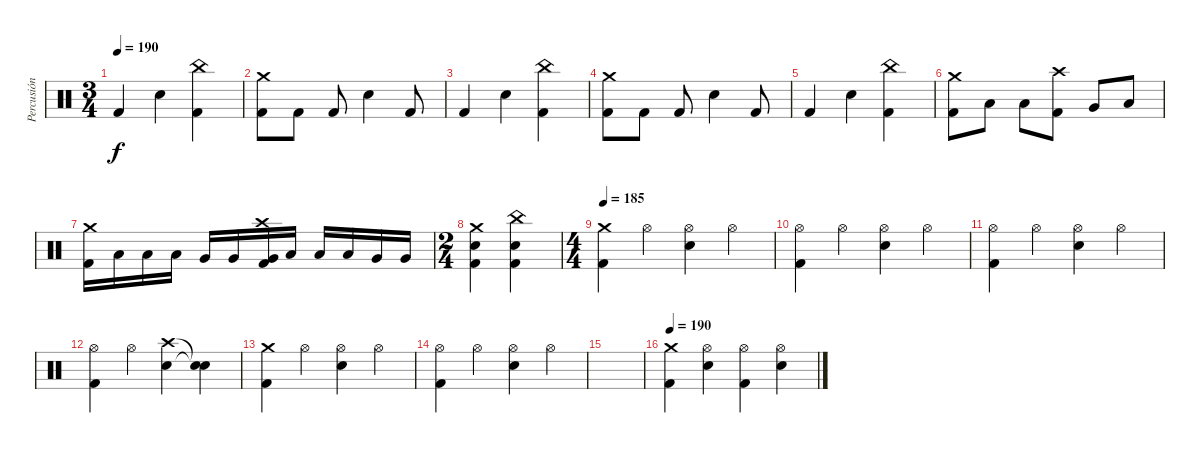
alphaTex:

\track ("Percusión" "Percusión") {instrument percussion}
\staff {score}
\articulation defaults
\ts (3 4)
\tempo 190
\clef neutral
\ks c "Kick (hit) 2".4{dy f} "Electric Snare (hit)".4
("China (hit)" "Kick (hit) 2").4 |
("Crash medium (hit)" "Kick (hit) 2").8 "Kick (hit) 2".8 "Kick (hit) 2".8 "Electric Snare (hit)".4 "Kick (hit) 2".8 |
"Kick (hit) 2".4 "Electric Snare (hit)".4 ("China (hit)" "Kick (hit) 2").4 |
("Crash medium (hit)" "Kick (hit) 2").8 "Kick (hit) 2".8 "Kick (hit) 2".8 "Electric Snare (hit)".4 "Kick (hit) 2".8 |
"Kick (hit) 2".4 "Electric Snare (hit)".4 ("China (hit)" "Kick (hit) 2").4 |
("Crash medium (hit)" "Kick (hit) 2").8 "Low Tom (hit)".8 "Low Tom (hit)".8 ("Crash high (hit)" "Kick (hit) 2").8 "Very Low Tom (hit)".8 "Low Floor Tom (hit)".8 |
("Crash medium (hit)" "Kick (hit) 2").16 "Low Tom (hit)".16 "Low Tom (hit)".16 "Low Tom (hit)".16 "Very Low Tom (hit)".16 "Very Low Tom (hit)".16 ("Crash high (hit)" "Very Low Tom (hit)" "Kick (hit) 2").16 "Low Floor Tom (hit)".16 "Low Floor Tom (hit)".16 "Low Floor Tom (hit)".16 "Very Low Tom (hit)".16 "Very Low Tom (hit)".16 |
\ts (2 4)
("Crash medium (hit)" "Electric Snare (hit)" "Kick (hit) 2").4 ("China (hit)" "Electric Snare (hit)" "Kick (hit) 2").4 |
\ts (4 4)
\tempo 185
("Crash medium (hit)" "Kick (hit) 2").4 "Hi-Hat (open)".4 ("Hi-Hat (open)" "Electric Snare (hit)").4 "Hi-Hat (open)".4 |
("Hi-Hat (open)" "Kick (hit) 2").4 "Hi-Hat (open)".4 ("Hi-Hat (open)" "Electric Snare (hit)").4 "Hi-Hat (open)".4 |
("Hi-Hat (open)" "Kick (hit) 2").4 "Hi-Hat (open)".4 ("Hi-Hat (open)" "Electric Snare (hit)").4 "Hi-Hat (open)".4 |
("Hi-Hat (open)" "Kick (hit) 2").4 "Hi-Hat (open)".4 ("Crash high (hit)" "Electric Snare (hit)").4 ("Snare (hit)"{t} "Snare (hit)"{t}).4 |
("Crash medium (hit)" "Kick (hit) 2").4 "Hi-Hat (open)".4 ("Hi-Hat (open)" "Electric Snare (hit)").4 "Hi-Hat (open)".4 |
("Hi-Hat (open)" "Kick (hit) 2").4 "Hi-Hat (open)".4 ("Hi-Hat (open)" "Electric Snare (hit)").4 "Hi-Hat (open)".4 |
|
\tempo 190
("Crash medium (hit)" "Kick (hit) 2").4 ("Hi-Hat (open)" "Electric Snare (hit)").4 ("Hi-Hat (open)" "Kick (hit) 2").4 ("Hi-Hat (open)" "Electric Snare (hit)").4
